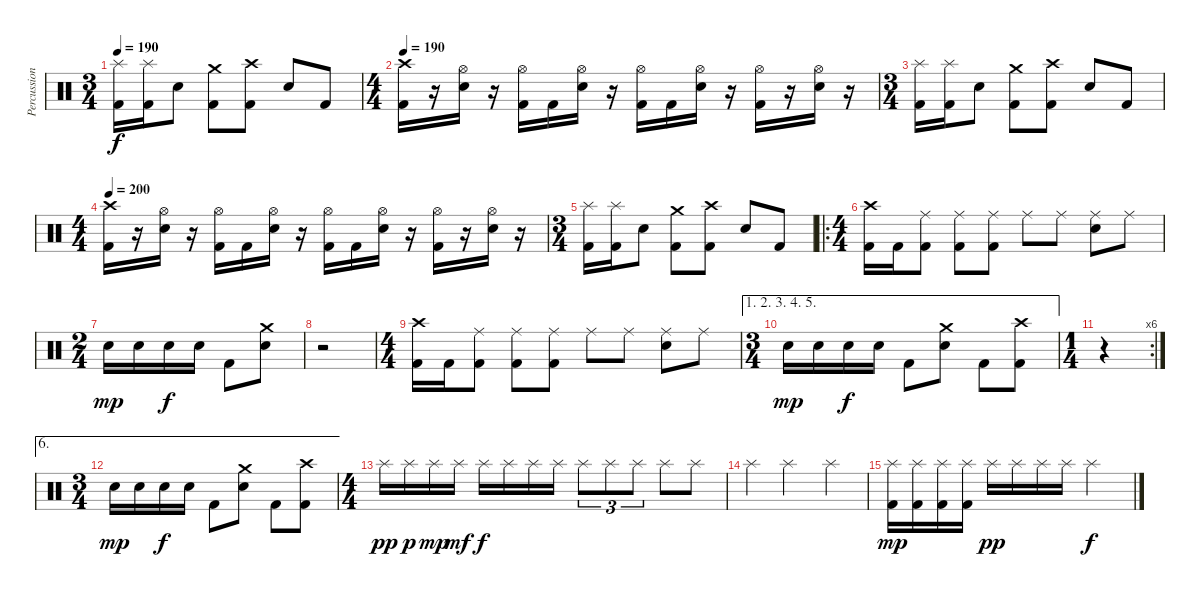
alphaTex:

\track ("Percussion" "Percussion") {instrument percussion}
\staff {score}
\articulation defaults
\ts (3 4)
\tempo 190
\clef neutral
\ks c
("Splash (hit)" "Kick (hit) 2").16{dy f} ("Splash (hit)" "Kick (hit) 2").16 "Electric Snare (hit)".8 ("Crash medium (hit)" "Kick (hit) 2").8 ("Crash high (hit)" "Kick (hit) 2").8 "Electric Snare (hit)".8 "Kick (hit) 2".8 |
\ts (4 4)
\tempo 190
("Crash high (hit)" "Kick (hit) 2").16 r.16 ("Hi-Hat (open)" "Electric Snare (hit)").16 r.16 ("Hi-Hat (open)" "Kick (hit) 2").16 "Kick (hit) 2".16 ("Hi-Hat (open)" "Electric Snare (hit)").16 r.16 ("Hi-Hat (open)" "Kick (hit) 2").16 "Kick (hit) 2".16 ("Hi-Hat (open)" "Electric Snare (hit)").16 r.16 ("Hi-Hat (open)" "Kick (hit) 2").16 r.16 ("Hi-Hat (open)" "Electric Snare (hit)").16 r.16 |
\ts (3 4)
("Splash (hit)" "Kick (hit) 2").16 ("Splash (hit)" "Kick (hit) 2").16 "Electric Snare (hit)".8 ("Crash medium (hit)" "Kick (hit) 2").8 ("Crash high (hit)" "Kick (hit) 2").8 "Electric Snare (hit)".8 "Kick (hit) 2".8 |
\ts (4 4)
\tempo 200
("Crash high (hit)" "Kick (hit) 2").16 r.16 ("Hi-Hat (open)" "Electric Snare (hit)").16 r.16 ("Hi-Hat (open)" "Kick (hit) 2").16 "Kick (hit) 2".16 ("Hi-Hat (open)" "Electric Snare (hit)").16 r.16 ("Hi-Hat (open)" "Kick (hit) 2").16 "Kick (hit) 2".16 ("Hi-Hat (open)" "Electric Snare (hit)").16 r.16 ("Hi-Hat (open)" "Kick (hit) 2").16 r.16 ("Hi-Hat (open)" "Electric Snare (hit)").16 r.16 |
\ts (3 4)
("Splash (hit)" "Kick (hit) 2").16 ("Splash (hit)" "Kick (hit) 2").16 "Electric Snare (hit)".8 ("Crash medium (hit)" "Kick (hit) 2").8 ("Crash high (hit)" "Kick (hit) 2").8 "Electric Snare (hit)".8 "Kick (hit) 2".8 |
\ro
\ts (4 4)
("Crash high (hit)" "Kick (hit) 2").16 "Kick (hit) 2".16 ("Ride (middle)" "Kick (hit) 2").8 ("Ride (middle)" "Kick (hit) 2").8 ("Ride (middle)" "Kick (hit) 2").8 "Ride (middle)".8 "Ride (middle)".8 ("Ride (middle)" "Electric Snare (hit)").8 "Ride (middle)".8 |
\ts (2 4)
"Electric Snare (hit)".16{dy mp} "Electric Snare (hit)".16 "Electric Snare (hit)".16{dy f} "Electric Snare (hit)".16 "Kick (hit) 2".8 ("Crash medium (hit)" "Electric Snare (hit)").8 |
r.2 |
\ts (4 4)
("Crash high (hit)" "Kick (hit) 2").16 "Kick (hit) 2".16 ("Ride (middle)" "Kick (hit) 2").8 ("Ride (middle)" "Kick (hit) 2").8 ("Ride (middle)" "Kick (hit) 2").8 "Ride (middle)".8 "Ride (middle)".8 ("Ride (middle)" "Electric Snare (hit)").8 "Ride (middle)".8 |
\ae (1 2 3 4 5)
\ts (3 4)
"Electric Snare (hit)".16{dy mp} "Electric Snare (hit)".16 "Electric Snare (hit)".16{dy f} "Electric Snare (hit)".16 "Kick (hit) 2".8 ("Crash medium (hit)" "Electric Snare (hit)").8 "Kick (hit) 2".8 ("Crash high (hit)" "Kick (hit) 2").8 |
\rc 6
\ts (1 4)
r.4 |
\ae 6
\ts (3 4)
"Electric Snare (hit)".16{dy mp} "Electric Snare (hit)".16 "Electric Snare (hit)".16{dy f} "Electric Snare (hit)".16 "Kick (hit) 2".8 ("Crash medium (hit)" "Electric Snare (hit)").8 "Kick (hit) 2".8 ("Crash high (hit)" "Kick (hit) 2").8 |
\ts (4 4)
"Splash (hit)".16{dy pp} "Splash (hit)".16{dy p} "Splash (hit)".16{dy mp} "Splash (hit)".16{dy mf} "Splash (hit)".16{dy f} "Splash (hit)".16 "Splash (hit)".16 "Splash (hit)".16 "Splash (hit)".8{tu (3 2)} "Splash (hit)".8{tu (3 2)} "Splash (hit)".8{tu (3 2)} "Splash (hit)".8 "Splash (hit)".8 |
"Splash (hit)".4 "Splash (hit)".2 "Splash (hit)".4 |
("Splash (hit)" "Kick (hit) 2").16{dy mp} ("Splash (hit)" "Kick (hit) 2").16 ("Splash (hit)" "Kick (hit) 2").16 ("Splash (hit)" "Kick (hit) 2").16 "Splash (hit)".16{dy pp} "Splash (hit)".16 "Splash (hit)".16 "Splash (hit)".16 "Splash (hit)".2{dy f}
